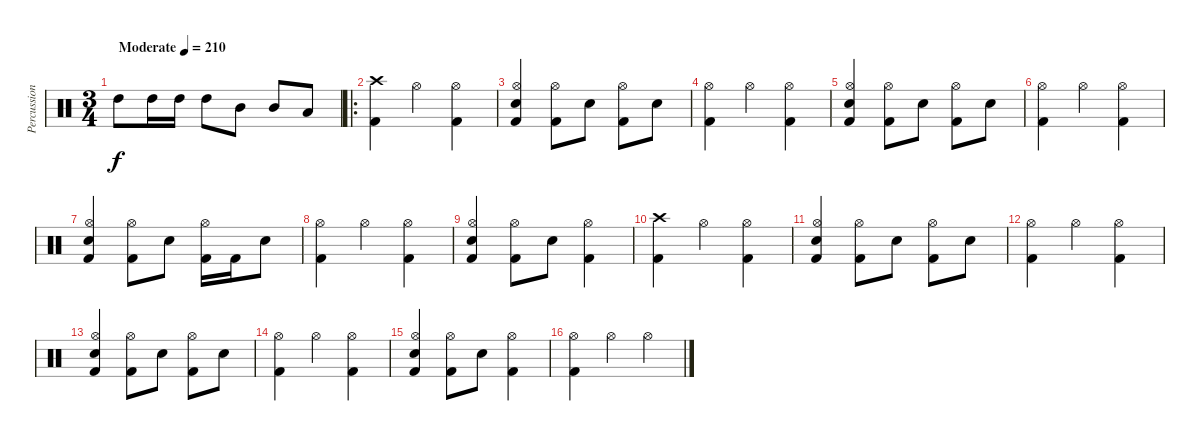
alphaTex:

\track ("Percussion" "Percussion") {instrument percussion}
\staff {score}
\articulation defaults
\ts (3 4)
\tempo (210 "Moderate")
\clef neutral
\ks c "High Tom (hit)".8{dy f volume 13} "High Tom (hit)".16 "High Tom (hit)".16 "High Tom (hit)".8 "Mid Tom (hit)".8 "Mid Tom (hit)".8 "Low Tom (hit)".8
|
\ro
("Crash high (hit)" "Kick (hit) 2").4 "Hi-Hat (open)".4 ("Hi-Hat (open)" "Kick (hit) 2").4 |
("Hi-Hat (open)" "Electric Snare (hit)" "Kick (hit) 2").4 ("Hi-Hat (open)" "Kick (hit) 2").8 "Electric Snare (hit)".8 ("Hi-Hat (open)" "Kick (hit) 2").8 "Electric Snare (hit)".8 |
("Hi-Hat (open)" "Kick (hit) 2").4 "Hi-Hat (open)".4 ("Hi-Hat (open)" "Kick (hit) 2").4 |
("Hi-Hat (open)" "Electric Snare (hit)" "Kick (hit) 2").4 ("Hi-Hat (open)" "Kick (hit) 2").8 "Electric Snare (hit)".8 ("Hi-Hat (open)" "Kick (hit) 2").8 "Electric Snare (hit)".8 |
("Hi-Hat (open)" "Kick (hit) 2").4 "Hi-Hat (open)".4 ("Hi-Hat (open)" "Kick (hit) 2").4 |
("Hi-Hat (open)" "Electric Snare (hit)" "Kick (hit) 2").4 ("Hi-Hat (open)" "Kick (hit) 2").8 "Electric Snare (hit)".8 ("Hi-Hat (open)" "Kick (hit) 2").16 "Kick (hit) 2".16 "Electric Snare (hit)".8 |
("Hi-Hat (open)" "Kick (hit) 2").4 "Hi-Hat (open)".4 ("Hi-Hat (open)" "Kick (hit) 2").4 |
("Hi-Hat (open)" "Electric Snare (hit)" "Kick (hit) 2").4 ("Hi-Hat (open)" "Kick (hit) 2").8 "Electric Snare (hit)".8 ("Hi-Hat (open)" "Kick (hit) 2").4 |
("Crash high (hit)" "Kick (hit) 2").4 "Hi-Hat (open)".4 ("Hi-Hat (open)" "Kick (hit) 2").4 |
("Hi-Hat (open)" "Electric Snare (hit)" "Kick (hit) 2").4 ("Hi-Hat (open)" "Kick (hit) 2").8 "Electric Snare (hit)".8 ("Hi-Hat (open)" "Kick (hit) 2").8 "Electric Snare (hit)".8 |
("Hi-Hat (open)" "Kick (hit) 2").4 "Hi-Hat (open)".4 ("Hi-Hat (open)" "Kick (hit) 2").4 |
("Hi-Hat (open)" "Electric Snare (hit)" "Kick (hit) 2").4 ("Hi-Hat (open)" "Kick (hit) 2").8 "Electric Snare (hit)".8 ("Hi-Hat (open)" "Kick (hit) 2").8 "Electric Snare (hit)".8 |
("Hi-Hat (open)" "Kick (hit) 2").4 "Hi-Hat (open)".4 ("Hi-Hat (open)" "Kick (hit) 2").4 |
("Hi-Hat (open)" "Electric Snare (hit)" "Kick (hit) 2").4 ("Hi-Hat (open)" "Kick (hit) 2").8 "Electric Snare (hit)".8 ("Hi-Hat (open)" "Kick (hit) 2").4 |
("Hi-Hat (open)" "Kick (hit) 2").4 "Hi-Hat (open)".4 "Hi-Hat (open)".4
